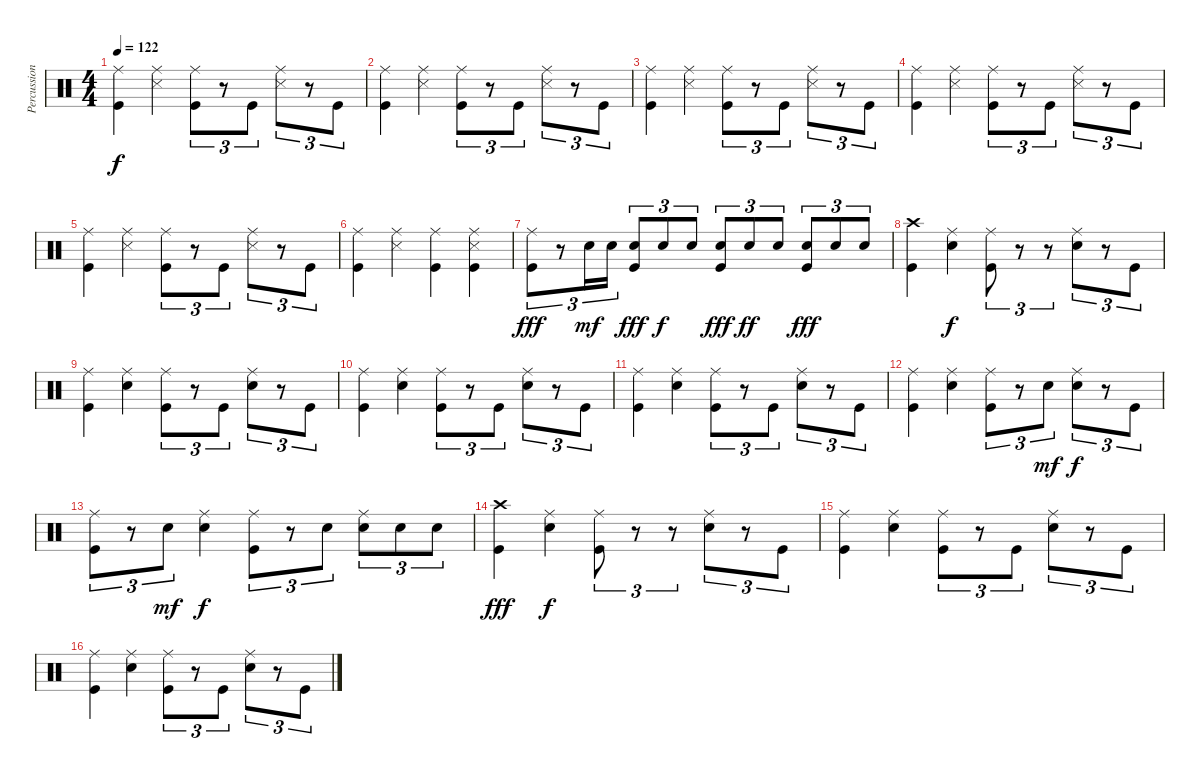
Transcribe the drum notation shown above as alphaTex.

\track ("Percussion" "Percussion") {instrument percussion}
\staff {score}
\articulation defaults
\ts (4 4)
\tempo 122
\clef neutral
\ks c
("Ride (middle)" "Kick (hit)").4{dy f} ("Ride (middle)" "Snare (side stick) 3").4 ("Ride (middle)" "Kick (hit)").8{tu (3 2)} r.8{tu (3 2)} "Kick (hit)".8{tu (3 2)} ("Ride (middle)" "Snare (side stick) 3").8{tu (3 2)} r.8{tu (3 2)} "Kick (hit)".8{tu (3 2)} |
("Ride (middle)" "Kick (hit)").4 ("Ride (middle)" "Snare (side stick) 3").4 ("Ride (middle)" "Kick (hit)").8{tu (3 2)} r.8{tu (3 2)} "Kick (hit)".8{tu (3 2)} ("Ride (middle)" "Snare (side stick) 3").8{tu (3 2)} r.8{tu (3 2)} "Kick (hit)".8{tu (3 2)} |
("Ride (middle)" "Kick (hit)").4 ("Ride (middle)" "Snare (side stick) 3").4 ("Ride (middle)" "Kick (hit)").8{tu (3 2)} r.8{tu (3 2)} "Kick (hit)".8{tu (3 2)} ("Ride (middle)" "Snare (side stick) 3").8{tu (3 2)} r.8{tu (3 2)} "Kick (hit)".8{tu (3 2)} |
("Ride (middle)" "Kick (hit)").4 ("Ride (middle)" "Snare (side stick) 3").4 ("Ride (middle)" "Kick (hit)").8{tu (3 2)} r.8{tu (3 2)} "Kick (hit)".8{tu (3 2)} ("Ride (middle)" "Snare (side stick) 3").8{tu (3 2)} r.8{tu (3 2)} "Kick (hit)".8{tu (3 2)} |
("Ride (middle)" "Kick (hit)").4 ("Ride (middle)" "Snare (side stick) 3").4 ("Ride (middle)" "Kick (hit)").8{tu (3 2)} r.8{tu (3 2)} "Kick (hit)".8{tu (3 2)} ("Ride (middle)" "Snare (side stick) 3").8{tu (3 2)} r.8{tu (3 2)} "Kick (hit)".8{tu (3 2)} |
("Ride (middle)" "Kick (hit)").4{volume 12} ("Ride (middle)" "Snare (side stick) 3").4 ("Ride (middle)" "Kick (hit)").4 ("Ride (middle)" "Snare (side stick) 3" "Kick (hit)").4 |
("Ride (middle)" "Kick (hit)").8{tu (3 2) dy fff} r.8{tu (3 2)} "Electric Snare (hit)".16{tu (3 2) dy mf volume 14} "Electric Snare (hit)".16{tu (3 2)} ("Electric Snare (hit)" "Kick (hit)").8{tu (3 2) dy fff} "Electric Snare (hit)".8{tu (3 2) dy f} "Electric Snare (hit)".8{tu (3 2)} ("Electric Snare (hit)" "Kick (hit)").8{tu (3 2) dy fff} "Electric Snare (hit)".8{tu (3 2) dy ff} "Electric Snare (hit)".8{tu (3 2)} ("Electric Snare (hit)" "Kick (hit)").8{tu (3 2) dy fff} "Electric Snare (hit)".8{tu (3 2)} "Electric Snare (hit)".8{tu (3 2)} |
("Crash high (hit)" "Kick (hit)").4 ("Ride (middle)" "Electric Snare (hit)").4{dy f} ("Ride (middle)" "Kick (hit)").8{tu (3 2)} r.8{tu (3 2)} r.8{tu (3 2)} ("Ride (middle)" "Electric Snare (hit)").8{tu (3 2)} r.8{tu (3 2)} "Kick (hit)".8{tu (3 2)} |
("Ride (middle)" "Kick (hit)").4 ("Ride (middle)" "Electric Snare (hit)").4 ("Ride (middle)" "Kick (hit)").8{tu (3 2)} r.8{tu (3 2)} "Kick (hit)".8{tu (3 2)} ("Ride (middle)" "Electric Snare (hit)").8{tu (3 2)} r.8{tu (3 2)} "Kick (hit)".8{tu (3 2)} |
("Ride (middle)" "Kick (hit)").4 ("Ride (middle)" "Electric Snare (hit)").4 ("Ride (middle)" "Kick (hit)").8{tu (3 2)} r.8{tu (3 2)} "Kick (hit)".8{tu (3 2)} ("Ride (middle)" "Electric Snare (hit)").8{tu (3 2)} r.8{tu (3 2)} "Kick (hit)".8{tu (3 2)} |
("Ride (middle)" "Kick (hit)").4 ("Ride (middle)" "Electric Snare (hit)").4 ("Ride (middle)" "Kick (hit)").8{tu (3 2)} r.8{tu (3 2)} "Kick (hit)".8{tu (3 2)} ("Ride (middle)" "Electric Snare (hit)").8{tu (3 2)} r.8{tu (3 2)} "Kick (hit)".8{tu (3 2)} |
("Ride (middle)" "Kick (hit)").4 ("Ride (middle)" "Electric Snare (hit)").4 ("Ride (middle)" "Kick (hit)").8{tu (3 2)} r.8{tu (3 2)} "Electric Snare (hit)".8{tu (3 2) dy mf} ("Ride (middle)" "Electric Snare (hit)").8{tu (3 2) dy f} r.8{tu (3 2)} "Kick (hit)".8{tu (3 2)} |
("Ride (middle)" "Kick (hit)").8{tu (3 2)} r.8{tu (3 2)} "Electric Snare (hit)".8{tu (3 2) dy mf} ("Ride (middle)" "Electric Snare (hit)").4{dy f} ("Ride (middle)" "Kick (hit)").8{tu (3 2)} r.8{tu (3 2)} "Electric Snare (hit)".8{tu (3 2)} ("Ride (middle)" "Electric Snare (hit)").8{tu (3 2)} "Electric Snare (hit)".8{tu (3 2)} "Electric Snare (hit)".8{tu (3 2)} |
("Crash high (hit)" "Kick (hit)").4{dy fff} ("Ride (middle)" "Electric Snare (hit)").4{dy f} ("Ride (middle)" "Kick (hit)").8{tu (3 2)} r.8{tu (3 2)} r.8{tu (3 2)} ("Ride (middle)" "Electric Snare (hit)").8{tu (3 2)} r.8{tu (3 2)} "Kick (hit)".8{tu (3 2)} |
("Ride (middle)" "Kick (hit)").4 ("Ride (middle)" "Electric Snare (hit)").4 ("Ride (middle)" "Kick (hit)").8{tu (3 2)} r.8{tu (3 2)} "Kick (hit)".8{tu (3 2)} ("Ride (middle)" "Electric Snare (hit)").8{tu (3 2)} r.8{tu (3 2)} "Kick (hit)".8{tu (3 2)} |
("Ride (middle)" "Kick (hit)").4 ("Ride (middle)" "Electric Snare (hit)").4 ("Ride (middle)" "Kick (hit)").8{tu (3 2)} r.8{tu (3 2)} "Kick (hit)".8{tu (3 2)} ("Ride (middle)" "Electric Snare (hit)").8{tu (3 2)} r.8{tu (3 2)} "Kick (hit)".8{tu (3 2)}
